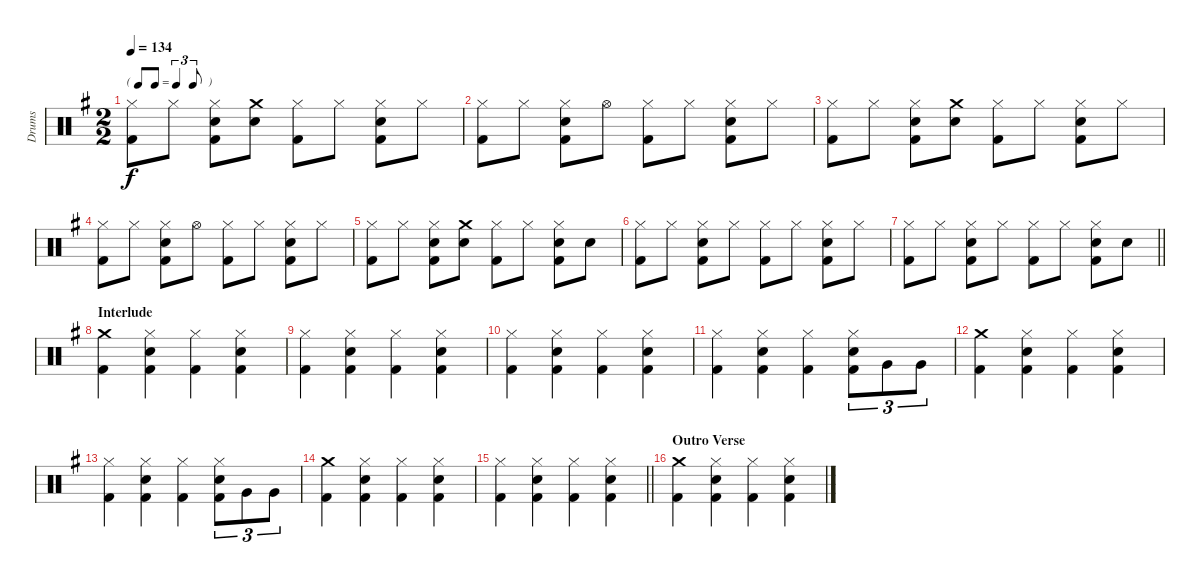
\track ("Drums" "Drums") {instrument percussion}
\staff {score}
\articulation defaults
\ts (2 2)
\tf triplet8th
\tempo 134
\clef neutral
\ks g
("Hi-Hat (closed)" "Kick (hit) 2").8{dy f} "Hi-Hat (closed)".8 ("Hi-Hat (closed)" "Snare (hit) 2" "Kick (hit) 2").8 ("Crash medium (hit)" "Snare (hit) 2").8 ("Hi-Hat (closed)" "Kick (hit) 2").8 "Hi-Hat (closed)".8 ("Hi-Hat (closed)" "Snare (hit) 2" "Kick (hit) 2").8 "Hi-Hat (closed)".8 |
("Hi-Hat (closed)" "Kick (hit) 2").8 "Hi-Hat (closed)".8 ("Hi-Hat (closed)" "Snare (hit) 2" "Kick (hit) 2").8 "Hi-Hat (open)".8 ("Hi-Hat (closed)" "Kick (hit) 2").8 "Hi-Hat (closed)".8 ("Hi-Hat (closed)" "Snare (hit) 2" "Kick (hit) 2").8 "Hi-Hat (closed)".8 |
("Hi-Hat (closed)" "Kick (hit) 2").8 "Hi-Hat (closed)".8 ("Hi-Hat (closed)" "Snare (hit) 2" "Kick (hit) 2").8 ("Crash medium (hit)" "Snare (hit) 2").8 ("Hi-Hat (closed)" "Kick (hit) 2").8 "Hi-Hat (closed)".8 ("Hi-Hat (closed)" "Snare (hit) 2" "Kick (hit) 2").8 "Hi-Hat (closed)".8 |
("Hi-Hat (closed)" "Kick (hit) 2").8 "Hi-Hat (closed)".8 ("Hi-Hat (closed)" "Snare (hit) 2" "Kick (hit) 2").8 "Hi-Hat (open)".8 ("Hi-Hat (closed)" "Kick (hit) 2").8 "Hi-Hat (closed)".8 ("Hi-Hat (closed)" "Snare (hit) 2" "Kick (hit) 2").8 "Hi-Hat (closed)".8 |
("Hi-Hat (closed)" "Kick (hit) 2").8 "Hi-Hat (closed)".8 ("Hi-Hat (closed)" "Snare (hit) 2" "Kick (hit) 2").8 ("Crash medium (hit)" "Snare (hit) 2").8 ("Hi-Hat (closed)" "Kick (hit) 2").8 "Hi-Hat (closed)".8 ("Hi-Hat (closed)" "Snare (hit) 2" "Kick (hit) 2").8 "Snare (hit) 2".8 |
("Hi-Hat (closed)" "Kick (hit) 2").8 "Hi-Hat (closed)".8 ("Hi-Hat (closed)" "Snare (hit) 2" "Kick (hit) 2").8 "Hi-Hat (closed)".8 ("Hi-Hat (closed)" "Kick (hit) 2").8 "Hi-Hat (closed)".8 ("Hi-Hat (closed)" "Snare (hit) 2" "Kick (hit) 2").8 "Hi-Hat (closed)".8 |
\barLineRight lightlight
("Hi-Hat (closed)" "Kick (hit) 2").8 "Hi-Hat (closed)".8 ("Hi-Hat (closed)" "Snare (hit) 2" "Kick (hit) 2").8 "Hi-Hat (closed)".8 ("Hi-Hat (closed)" "Kick (hit) 2").8 "Hi-Hat (closed)".8 ("Hi-Hat (closed)" "Snare (hit) 2" "Kick (hit) 2").8 "Snare (hit) 2".8 |
\section ("" "Interlude")
("Crash medium (hit)" "Kick (hit) 2").4 ("Hi-Hat (closed)" "Snare (hit) 2" "Kick (hit) 2").4 ("Hi-Hat (closed)" "Kick (hit) 2").4 ("Hi-Hat (closed)" "Snare (hit) 2" "Kick (hit) 2").4 |
("Hi-Hat (closed)" "Kick (hit) 2").4 ("Hi-Hat (closed)" "Snare (hit) 2" "Kick (hit) 2").4 ("Hi-Hat (closed)" "Kick (hit) 2").4 ("Hi-Hat (closed)" "Snare (hit) 2" "Kick (hit) 2").4 |
("Hi-Hat (closed)" "Kick (hit) 2").4 ("Hi-Hat (closed)" "Snare (hit) 2" "Kick (hit) 2").4 ("Hi-Hat (closed)" "Kick (hit) 2").4 ("Hi-Hat (closed)" "Snare (hit) 2" "Kick (hit) 2").4 |
("Hi-Hat (closed)" "Kick (hit) 2").4 ("Hi-Hat (closed)" "Snare (hit) 2" "Kick (hit) 2").4 ("Hi-Hat (closed)" "Kick (hit) 2").4 ("Hi-Hat (closed)" "Snare (hit) 2" "Kick (hit) 2").8{tu (3 2)} "Very Low Tom (hit)".8{tu (3 2)} "Very Low Tom (hit)".8{tu (3 2)} |
("Crash medium (hit)" "Kick (hit) 2").4 ("Hi-Hat (closed)" "Snare (hit) 2" "Kick (hit) 2").4 ("Hi-Hat (closed)" "Kick (hit) 2").4 ("Hi-Hat (closed)" "Snare (hit) 2" "Kick (hit) 2").4 |
("Hi-Hat (closed)" "Kick (hit) 2").4 ("Hi-Hat (closed)" "Snare (hit) 2" "Kick (hit) 2").4 ("Hi-Hat (closed)" "Kick (hit) 2").4 ("Hi-Hat (closed)" "Snare (hit) 2" "Kick (hit) 2").8{tu (3 2)} "Very Low Tom (hit)".8{tu (3 2)} "Very Low Tom (hit)".8{tu (3 2)} |
("Crash medium (hit)" "Kick (hit) 2").4 ("Hi-Hat (closed)" "Snare (hit) 2" "Kick (hit) 2").4 ("Hi-Hat (closed)" "Kick (hit) 2").4 ("Hi-Hat (closed)" "Snare (hit) 2" "Kick (hit) 2").4 |
\barLineRight lightlight
("Hi-Hat (closed)" "Kick (hit) 2").4 ("Hi-Hat (closed)" "Snare (hit) 2" "Kick (hit) 2").4 ("Hi-Hat (closed)" "Kick (hit) 2").4 ("Hi-Hat (closed)" "Snare (hit) 2" "Kick (hit) 2").4 |
\section ("" "Outro Verse")
("Crash medium (hit)" "Kick (hit) 2").4 ("Hi-Hat (closed)" "Snare (hit) 2" "Kick (hit) 2").4 ("Hi-Hat (closed)" "Kick (hit) 2").4 ("Hi-Hat (closed)" "Snare (hit) 2" "Kick (hit) 2").4
